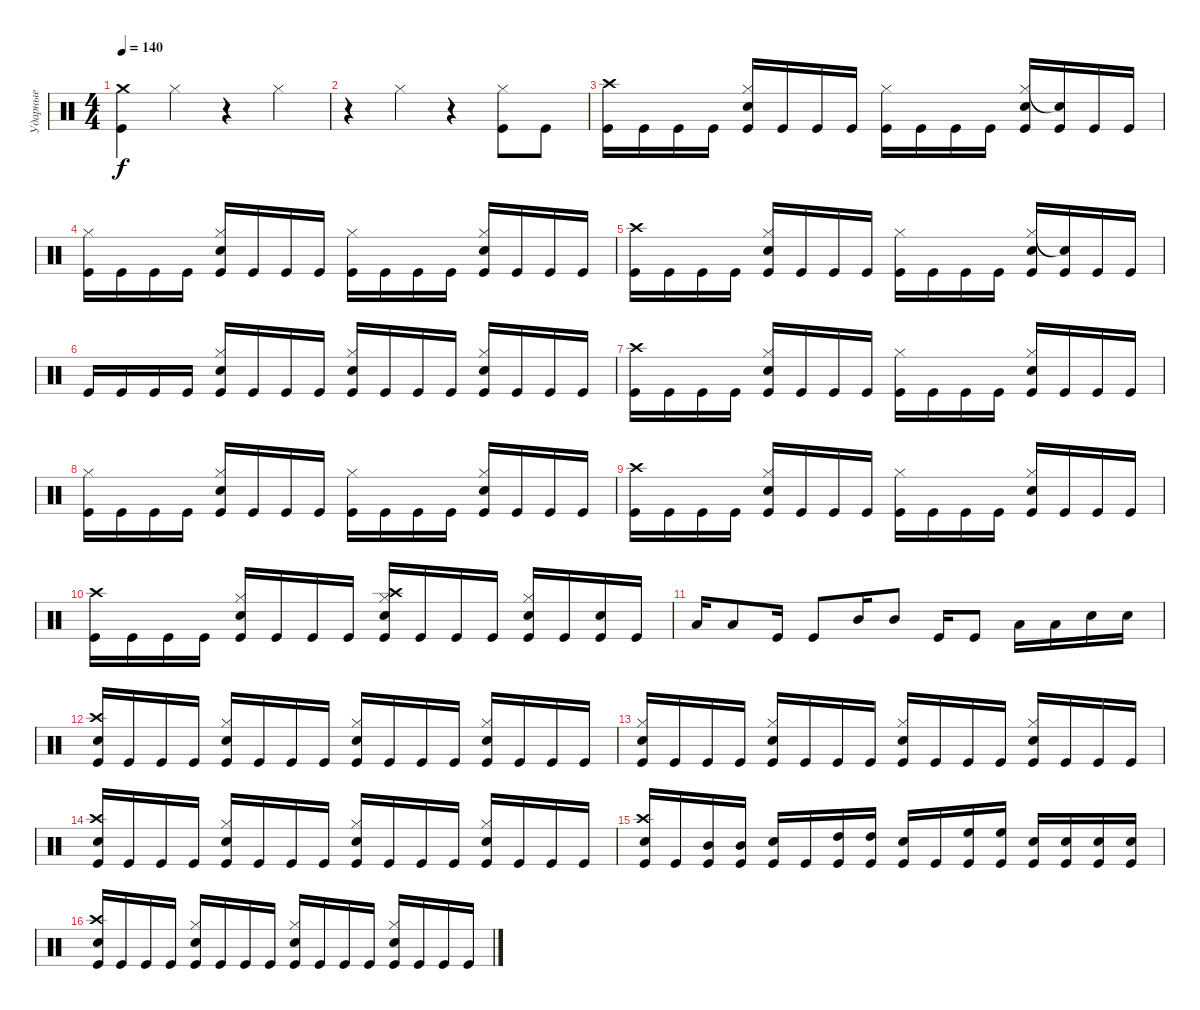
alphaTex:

\track ("Ударные" "Ударные") {instrument percussion}
\staff {score}
\articulation defaults
\ts (4 4)
\tempo 140
\clef neutral
\ks c
("Crash medium (hit)" "Kick (hit)").4{dy f} "Hi-Hat (closed)".4 r.4 "Hi-Hat (closed)".4 |
r.4 "Hi-Hat (closed)".4 r.4 ("Hi-Hat (closed)" "Kick (hit)").8 "Kick (hit)".8 |
("Crash high (hit)" "Kick (hit)").16 "Kick (hit)".16 "Kick (hit)".16 "Kick (hit)".16 ("Hi-Hat (closed)" "Electric Snare (hit)" "Kick (hit)").16 "Kick (hit)".16 "Kick (hit)".16 "Kick (hit)".16 ("Hi-Hat (closed)" "Kick (hit)").16 "Kick (hit)".16 "Kick (hit)".16 "Kick (hit)".16 ("Hi-Hat (closed)" "Electric Snare (hit)" "Kick (hit)").16 ("Snare (hit)"{t} "Kick (hit)").16 "Kick (hit)".16 "Kick (hit)".16 |
("Hi-Hat (closed)" "Kick (hit)").16 "Kick (hit)".16 "Kick (hit)".16 "Kick (hit)".16 ("Hi-Hat (closed)" "Electric Snare (hit)" "Kick (hit)").16 "Kick (hit)".16 "Kick (hit)".16 "Kick (hit)".16 ("Hi-Hat (closed)" "Kick (hit)").16 "Kick (hit)".16 "Kick (hit)".16 "Kick (hit)".16 ("Hi-Hat (closed)" "Electric Snare (hit)" "Kick (hit)").16 "Kick (hit)".16 "Kick (hit)".16 "Kick (hit)".16 |
("Crash high (hit)" "Kick (hit)").16 "Kick (hit)".16 "Kick (hit)".16 "Kick (hit)".16 ("Hi-Hat (closed)" "Electric Snare (hit)" "Kick (hit)").16 "Kick (hit)".16 "Kick (hit)".16 "Kick (hit)".16 ("Hi-Hat (closed)" "Kick (hit)").16 "Kick (hit)".16 "Kick (hit)".16 "Kick (hit)".16 ("Hi-Hat (closed)" "Electric Snare (hit)" "Kick (hit)").16 ("Snare (hit)"{t} "Kick (hit)").16 "Kick (hit)".16 "Kick (hit)".16 |
"Kick (hit)".16 "Kick (hit)".16 "Kick (hit)".16 "Kick (hit)".16 ("Hi-Hat (closed)" "Electric Snare (hit)" "Kick (hit)").16 "Kick (hit)".16 "Kick (hit)".16 "Kick (hit)".16 ("Hi-Hat (closed)" "Electric Snare (hit)" "Kick (hit)").16 "Kick (hit)".16 "Kick (hit)".16 "Kick (hit)".16 ("Hi-Hat (closed)" "Electric Snare (hit)" "Kick (hit)").16 "Kick (hit)".16 "Kick (hit)".16 "Kick (hit)".16 |
("Crash high (hit)" "Kick (hit)").16 "Kick (hit)".16 "Kick (hit)".16 "Kick (hit)".16 ("Hi-Hat (closed)" "Electric Snare (hit)" "Kick (hit)").16 "Kick (hit)".16 "Kick (hit)".16 "Kick (hit)".16 ("Hi-Hat (closed)" "Kick (hit)").16 "Kick (hit)".16 "Kick (hit)".16 "Kick (hit)".16 ("Hi-Hat (closed)" "Electric Snare (hit)" "Kick (hit)").16 "Kick (hit)".16 "Kick (hit)".16 "Kick (hit)".16 |
("Hi-Hat (closed)" "Kick (hit)").16 "Kick (hit)".16 "Kick (hit)".16 "Kick (hit)".16 ("Hi-Hat (closed)" "Electric Snare (hit)" "Kick (hit)").16 "Kick (hit)".16 "Kick (hit)".16 "Kick (hit)".16 ("Hi-Hat (closed)" "Kick (hit)").16 "Kick (hit)".16 "Kick (hit)".16 "Kick (hit)".16 ("Hi-Hat (closed)" "Electric Snare (hit)" "Kick (hit)").16 "Kick (hit)".16 "Kick (hit)".16 "Kick (hit)".16 |
("Crash high (hit)" "Kick (hit)").16 "Kick (hit)".16 "Kick (hit)".16 "Kick (hit)".16 ("Hi-Hat (closed)" "Electric Snare (hit)" "Kick (hit)").16 "Kick (hit)".16 "Kick (hit)".16 "Kick (hit)".16 ("Hi-Hat (closed)" "Kick (hit)").16 "Kick (hit)".16 "Kick (hit)".16 "Kick (hit)".16 ("Hi-Hat (closed)" "Electric Snare (hit)" "Kick (hit)").16 "Kick (hit)".16 "Kick (hit)".16 "Kick (hit)".16 |
("Crash high (hit)" "Kick (hit)").16 "Kick (hit)".16 "Kick (hit)".16 "Kick (hit)".16 ("Hi-Hat (closed)" "Electric Snare (hit)" "Kick (hit)").16 "Kick (hit)".16 "Kick (hit)".16 "Kick (hit)".16 ("Crash high (hit)" "Hi-Hat (closed)" "Electric Snare (hit)" "Kick (hit)").16 "Kick (hit)".16 "Kick (hit)".16 "Kick (hit)".16 ("Hi-Hat (closed)" "Electric Snare (hit)" "Kick (hit)").16 "Kick (hit)".16 ("Electric Snare (hit)" "Kick (hit)").16 "Kick (hit)".16 |
"Low Tom (hit)".16 "Low Tom (hit)".8 "Kick (hit)".16 "Kick (hit)".8 "Mid Tom (hit)".16 "Mid Tom (hit)".8 "Kick (hit)".16 "Kick (hit)".8 "Low Tom (hit)".16 "Low Tom (hit)".16 "Electric Snare (hit)".16 "Electric Snare (hit)".16 |
("Crash high (hit)" "Electric Snare (hit)" "Kick (hit)").16 "Kick (hit)".16 "Kick (hit)".16 "Kick (hit)".16 ("Hi-Hat (closed)" "Electric Snare (hit)" "Kick (hit)").16 "Kick (hit)".16 "Kick (hit)".16 "Kick (hit)".16 ("Hi-Hat (closed)" "Electric Snare (hit)" "Kick (hit)").16 "Kick (hit)".16 "Kick (hit)".16 "Kick (hit)".16 ("Hi-Hat (closed)" "Electric Snare (hit)" "Kick (hit)").16 "Kick (hit)".16 "Kick (hit)".16 "Kick (hit)".16 |
("Hi-Hat (closed)" "Electric Snare (hit)" "Kick (hit)").16 "Kick (hit)".16 "Kick (hit)".16 "Kick (hit)".16 ("Hi-Hat (closed)" "Electric Snare (hit)" "Kick (hit)").16 "Kick (hit)".16 "Kick (hit)".16 "Kick (hit)".16 ("Hi-Hat (closed)" "Electric Snare (hit)" "Kick (hit)").16 "Kick (hit)".16 "Kick (hit)".16 "Kick (hit)".16 ("Hi-Hat (closed)" "Electric Snare (hit)" "Kick (hit)").16 "Kick (hit)".16 "Kick (hit)".16 "Kick (hit)".16 |
("Crash high (hit)" "Electric Snare (hit)" "Kick (hit)").16 "Kick (hit)".16 "Kick (hit)".16 "Kick (hit)".16 ("Hi-Hat (closed)" "Electric Snare (hit)" "Kick (hit)").16 "Kick (hit)".16 "Kick (hit)".16 "Kick (hit)".16 ("Hi-Hat (closed)" "Electric Snare (hit)" "Kick (hit)").16 "Kick (hit)".16 "Kick (hit)".16 "Kick (hit)".16 ("Hi-Hat (closed)" "Electric Snare (hit)" "Kick (hit)").16 "Kick (hit)".16 "Kick (hit)".16 "Kick (hit)".16 |
("Crash high (hit)" "Electric Snare (hit)" "Kick (hit)").16 "Kick (hit)".16 ("Mid Tom (hit)" "Kick (hit)").16 ("Mid Tom (hit)" "Kick (hit)").16 ("Electric Snare (hit)" "Kick (hit)").16 "Kick (hit)".16 ("High Tom (hit)" "Kick (hit)").16 ("High Tom (hit)" "Kick (hit)").16 ("Electric Snare (hit)" "Kick (hit)").16 "Kick (hit)".16 ("High Floor Tom (hit)" "Kick (hit)").16 ("High Floor Tom (hit)" "Kick (hit)").16 ("Electric Snare (hit)" "Kick (hit)").16 ("Electric Snare (hit)" "Kick (hit)").16 ("Electric Snare (hit)" "Kick (hit)").16 ("Electric Snare (hit)" "Kick (hit)").16 |
("Crash high (hit)" "Electric Snare (hit)" "Kick (hit)").16 "Kick (hit)".16 "Kick (hit)".16 "Kick (hit)".16 ("Hi-Hat (closed)" "Electric Snare (hit)" "Kick (hit)").16 "Kick (hit)".16 "Kick (hit)".16 "Kick (hit)".16 ("Hi-Hat (closed)" "Electric Snare (hit)" "Kick (hit)").16 "Kick (hit)".16 "Kick (hit)".16 "Kick (hit)".16 ("Hi-Hat (closed)" "Electric Snare (hit)" "Kick (hit)").16 "Kick (hit)".16 "Kick (hit)".16 "Kick (hit)".16
